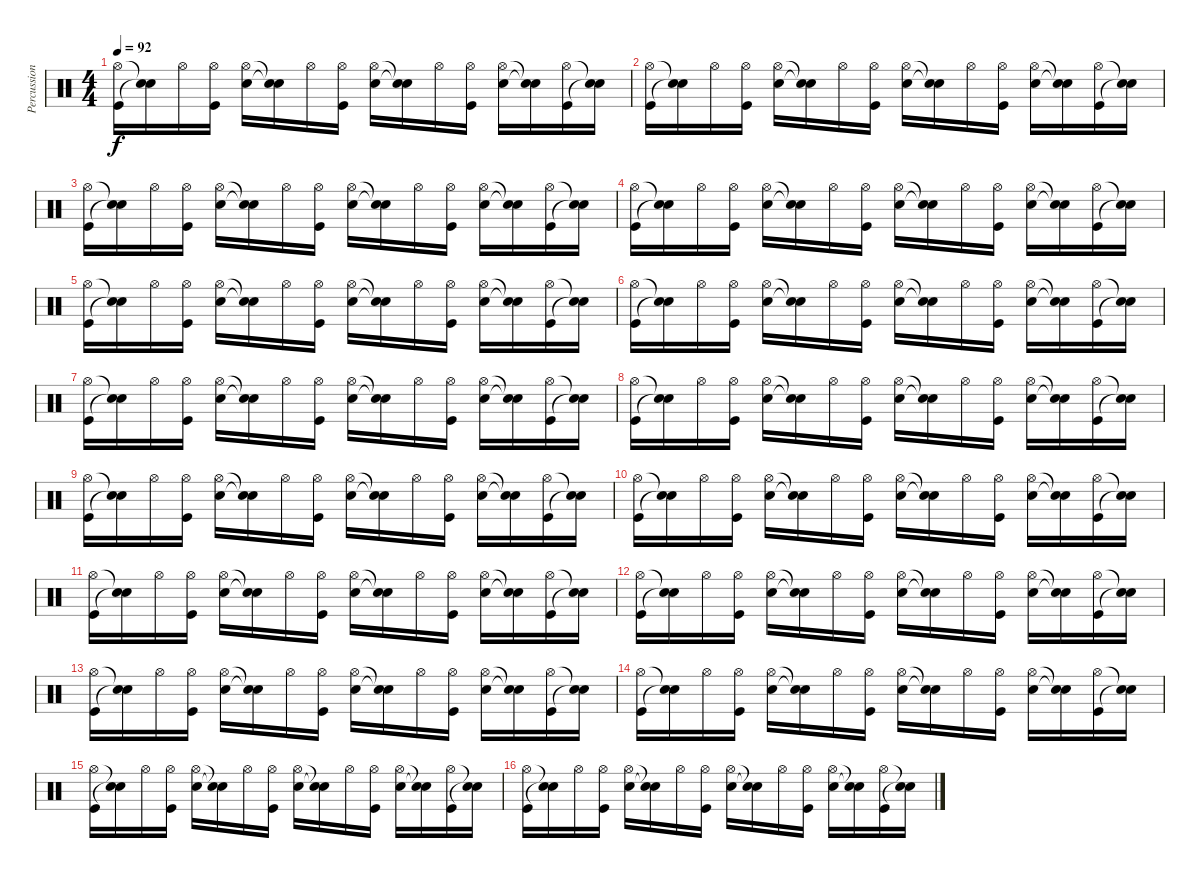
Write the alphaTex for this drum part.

\track ("Percussion" "Percussion") {instrument percussion}
\staff {score}
\articulation defaults
\ts (4 4)
\tempo 92
\clef neutral
\ks c
("Hi-Hat (open)" "Kick (hit)").16{dy f} ("Snare (hit)"{t} "Snare (hit)"{t}).16 "Hi-Hat (open)".16 ("Hi-Hat (open)" "Kick (hit)").16 ("Hi-Hat (open)" "Snare (hit) 2").16 ("Snare (hit)"{t} "Snare (hit)"{t}).16 "Hi-Hat (open)".16 ("Hi-Hat (open)" "Kick (hit)").16 ("Hi-Hat (open)" "Snare (hit) 2").16 ("Snare (hit)"{t} "Snare (hit)"{t}).16 "Hi-Hat (open)".16 ("Hi-Hat (open)" "Kick (hit)").16 ("Hi-Hat (open)" "Snare (hit) 2").16 ("Snare (hit)"{t} "Snare (hit)"{t}).16 ("Hi-Hat (open)" "Kick (hit)").16 ("Snare (hit)"{t} "Snare (hit)"{t}).16 |
("Hi-Hat (open)" "Kick (hit)").16 ("Snare (hit)"{t} "Snare (hit)"{t}).16 "Hi-Hat (open)".16 ("Hi-Hat (open)" "Kick (hit)").16 ("Hi-Hat (open)" "Snare (hit) 2").16 ("Snare (hit)"{t} "Snare (hit)"{t}).16 "Hi-Hat (open)".16 ("Hi-Hat (open)" "Kick (hit)").16 ("Hi-Hat (open)" "Snare (hit) 2").16 ("Snare (hit)"{t} "Snare (hit)"{t}).16 "Hi-Hat (open)".16 ("Hi-Hat (open)" "Kick (hit)").16 ("Hi-Hat (open)" "Snare (hit) 2").16 ("Snare (hit)"{t} "Snare (hit)"{t}).16 ("Hi-Hat (open)" "Kick (hit)").16 ("Snare (hit)"{t} "Snare (hit)"{t}).16 |
("Hi-Hat (open)" "Kick (hit)").16 ("Snare (hit)"{t} "Snare (hit)"{t}).16 "Hi-Hat (open)".16 ("Hi-Hat (open)" "Kick (hit)").16 ("Hi-Hat (open)" "Snare (hit) 2").16 ("Snare (hit)"{t} "Snare (hit)"{t}).16 "Hi-Hat (open)".16 ("Hi-Hat (open)" "Kick (hit)").16 ("Hi-Hat (open)" "Snare (hit) 2").16 ("Snare (hit)"{t} "Snare (hit)"{t}).16 "Hi-Hat (open)".16 ("Hi-Hat (open)" "Kick (hit)").16 ("Hi-Hat (open)" "Snare (hit) 2").16 ("Snare (hit)"{t} "Snare (hit)"{t}).16 ("Hi-Hat (open)" "Kick (hit)").16 ("Snare (hit)"{t} "Snare (hit)"{t}).16 |
("Hi-Hat (open)" "Kick (hit)").16 ("Snare (hit)"{t} "Snare (hit)"{t}).16 "Hi-Hat (open)".16 ("Hi-Hat (open)" "Kick (hit)").16 ("Hi-Hat (open)" "Snare (hit) 2").16 ("Snare (hit)"{t} "Snare (hit)"{t}).16 "Hi-Hat (open)".16 ("Hi-Hat (open)" "Kick (hit)").16 ("Hi-Hat (open)" "Snare (hit) 2").16 ("Snare (hit)"{t} "Snare (hit)"{t}).16 "Hi-Hat (open)".16 ("Hi-Hat (open)" "Kick (hit)").16 ("Hi-Hat (open)" "Snare (hit) 2").16 ("Snare (hit)"{t} "Snare (hit)"{t}).16 ("Hi-Hat (open)" "Kick (hit)").16 ("Snare (hit)"{t} "Snare (hit)"{t}).16 |
("Hi-Hat (open)" "Kick (hit)").16 ("Snare (hit)"{t} "Snare (hit)"{t}).16 "Hi-Hat (open)".16 ("Hi-Hat (open)" "Kick (hit)").16 ("Hi-Hat (open)" "Snare (hit) 2").16 ("Snare (hit)"{t} "Snare (hit)"{t}).16 "Hi-Hat (open)".16 ("Hi-Hat (open)" "Kick (hit)").16 ("Hi-Hat (open)" "Snare (hit) 2").16 ("Snare (hit)"{t} "Snare (hit)"{t}).16 "Hi-Hat (open)".16 ("Hi-Hat (open)" "Kick (hit)").16 ("Hi-Hat (open)" "Snare (hit) 2").16 ("Snare (hit)"{t} "Snare (hit)"{t}).16 ("Hi-Hat (open)" "Kick (hit)").16 ("Snare (hit)"{t} "Snare (hit)"{t}).16 |
("Hi-Hat (open)" "Kick (hit)").16 ("Snare (hit)"{t} "Snare (hit)"{t}).16 "Hi-Hat (open)".16 ("Hi-Hat (open)" "Kick (hit)").16 ("Hi-Hat (open)" "Snare (hit) 2").16 ("Snare (hit)"{t} "Snare (hit)"{t}).16 "Hi-Hat (open)".16 ("Hi-Hat (open)" "Kick (hit)").16 ("Hi-Hat (open)" "Snare (hit) 2").16 ("Snare (hit)"{t} "Snare (hit)"{t}).16 "Hi-Hat (open)".16 ("Hi-Hat (open)" "Kick (hit)").16 ("Hi-Hat (open)" "Snare (hit) 2").16 ("Snare (hit)"{t} "Snare (hit)"{t}).16 ("Hi-Hat (open)" "Kick (hit)").16 ("Snare (hit)"{t} "Snare (hit)"{t}).16 |
("Hi-Hat (open)" "Kick (hit)").16 ("Snare (hit)"{t} "Snare (hit)"{t}).16 "Hi-Hat (open)".16 ("Hi-Hat (open)" "Kick (hit)").16 ("Hi-Hat (open)" "Snare (hit) 2").16 ("Snare (hit)"{t} "Snare (hit)"{t}).16 "Hi-Hat (open)".16 ("Hi-Hat (open)" "Kick (hit)").16 ("Hi-Hat (open)" "Snare (hit) 2").16 ("Snare (hit)"{t} "Snare (hit)"{t}).16 "Hi-Hat (open)".16 ("Hi-Hat (open)" "Kick (hit)").16 ("Hi-Hat (open)" "Snare (hit) 2").16 ("Snare (hit)"{t} "Snare (hit)"{t}).16 ("Hi-Hat (open)" "Kick (hit)").16 ("Snare (hit)"{t} "Snare (hit)"{t}).16 |
("Hi-Hat (open)" "Kick (hit)").16 ("Snare (hit)"{t} "Snare (hit)"{t}).16 "Hi-Hat (open)".16 ("Hi-Hat (open)" "Kick (hit)").16 ("Hi-Hat (open)" "Snare (hit) 2").16 ("Snare (hit)"{t} "Snare (hit)"{t}).16 "Hi-Hat (open)".16 ("Hi-Hat (open)" "Kick (hit)").16 ("Hi-Hat (open)" "Snare (hit) 2").16 ("Snare (hit)"{t} "Snare (hit)"{t}).16 "Hi-Hat (open)".16 ("Hi-Hat (open)" "Kick (hit)").16 ("Hi-Hat (open)" "Snare (hit) 2").16 ("Snare (hit)"{t} "Snare (hit)"{t}).16 ("Hi-Hat (open)" "Kick (hit)").16 ("Snare (hit)"{t} "Snare (hit)"{t}).16 |
("Hi-Hat (open)" "Kick (hit)").16 ("Snare (hit)"{t} "Snare (hit)"{t}).16 "Hi-Hat (open)".16 ("Hi-Hat (open)" "Kick (hit)").16 ("Hi-Hat (open)" "Snare (hit) 2").16 ("Snare (hit)"{t} "Snare (hit)"{t}).16 "Hi-Hat (open)".16 ("Hi-Hat (open)" "Kick (hit)").16 ("Hi-Hat (open)" "Snare (hit) 2").16 ("Snare (hit)"{t} "Snare (hit)"{t}).16 "Hi-Hat (open)".16 ("Hi-Hat (open)" "Kick (hit)").16 ("Hi-Hat (open)" "Snare (hit) 2").16 ("Snare (hit)"{t} "Snare (hit)"{t}).16 ("Hi-Hat (open)" "Kick (hit)").16 ("Snare (hit)"{t} "Snare (hit)"{t}).16 |
("Hi-Hat (open)" "Kick (hit)").16 ("Snare (hit)"{t} "Snare (hit)"{t}).16 "Hi-Hat (open)".16 ("Hi-Hat (open)" "Kick (hit)").16 ("Hi-Hat (open)" "Snare (hit) 2").16 ("Snare (hit)"{t} "Snare (hit)"{t}).16 "Hi-Hat (open)".16 ("Hi-Hat (open)" "Kick (hit)").16 ("Hi-Hat (open)" "Snare (hit) 2").16 ("Snare (hit)"{t} "Snare (hit)"{t}).16 "Hi-Hat (open)".16 ("Hi-Hat (open)" "Kick (hit)").16 ("Hi-Hat (open)" "Snare (hit) 2").16 ("Snare (hit)"{t} "Snare (hit)"{t}).16 ("Hi-Hat (open)" "Kick (hit)").16 ("Snare (hit)"{t} "Snare (hit)"{t}).16 |
("Hi-Hat (open)" "Kick (hit)").16 ("Snare (hit)"{t} "Snare (hit)"{t}).16 "Hi-Hat (open)".16 ("Hi-Hat (open)" "Kick (hit)").16 ("Hi-Hat (open)" "Snare (hit) 2").16 ("Snare (hit)"{t} "Snare (hit)"{t}).16 "Hi-Hat (open)".16 ("Hi-Hat (open)" "Kick (hit)").16 ("Hi-Hat (open)" "Snare (hit) 2").16 ("Snare (hit)"{t} "Snare (hit)"{t}).16 "Hi-Hat (open)".16 ("Hi-Hat (open)" "Kick (hit)").16 ("Hi-Hat (open)" "Snare (hit) 2").16 ("Snare (hit)"{t} "Snare (hit)"{t}).16 ("Hi-Hat (open)" "Kick (hit)").16 ("Snare (hit)"{t} "Snare (hit)"{t}).16 |
("Hi-Hat (open)" "Kick (hit)").16 ("Snare (hit)"{t} "Snare (hit)"{t}).16 "Hi-Hat (open)".16 ("Hi-Hat (open)" "Kick (hit)").16 ("Hi-Hat (open)" "Snare (hit) 2").16 ("Snare (hit)"{t} "Snare (hit)"{t}).16 "Hi-Hat (open)".16 ("Hi-Hat (open)" "Kick (hit)").16 ("Hi-Hat (open)" "Snare (hit) 2").16 ("Snare (hit)"{t} "Snare (hit)"{t}).16 "Hi-Hat (open)".16 ("Hi-Hat (open)" "Kick (hit)").16 ("Hi-Hat (open)" "Snare (hit) 2").16 ("Snare (hit)"{t} "Snare (hit)"{t}).16 ("Hi-Hat (open)" "Kick (hit)").16 ("Snare (hit)"{t} "Snare (hit)"{t}).16 |
("Hi-Hat (open)" "Kick (hit)").16 ("Snare (hit)"{t} "Snare (hit)"{t}).16 "Hi-Hat (open)".16 ("Hi-Hat (open)" "Kick (hit)").16 ("Hi-Hat (open)" "Snare (hit) 2").16 ("Snare (hit)"{t} "Snare (hit)"{t}).16 "Hi-Hat (open)".16 ("Hi-Hat (open)" "Kick (hit)").16 ("Hi-Hat (open)" "Snare (hit) 2").16 ("Snare (hit)"{t} "Snare (hit)"{t}).16 "Hi-Hat (open)".16 ("Hi-Hat (open)" "Kick (hit)").16 ("Hi-Hat (open)" "Snare (hit) 2").16 ("Snare (hit)"{t} "Snare (hit)"{t}).16 ("Hi-Hat (open)" "Kick (hit)").16 ("Snare (hit)"{t} "Snare (hit)"{t}).16 |
("Hi-Hat (open)" "Kick (hit)").16 ("Snare (hit)"{t} "Snare (hit)"{t}).16 "Hi-Hat (open)".16 ("Hi-Hat (open)" "Kick (hit)").16 ("Hi-Hat (open)" "Snare (hit) 2").16 ("Snare (hit)"{t} "Snare (hit)"{t}).16 "Hi-Hat (open)".16 ("Hi-Hat (open)" "Kick (hit)").16 ("Hi-Hat (open)" "Snare (hit) 2").16 ("Snare (hit)"{t} "Snare (hit)"{t}).16 "Hi-Hat (open)".16 ("Hi-Hat (open)" "Kick (hit)").16 ("Hi-Hat (open)" "Snare (hit) 2").16 ("Snare (hit)"{t} "Snare (hit)"{t}).16 ("Hi-Hat (open)" "Kick (hit)").16 ("Snare (hit)"{t} "Snare (hit)"{t}).16 |
("Hi-Hat (open)" "Kick (hit)").16 ("Snare (hit)"{t} "Snare (hit)"{t}).16 "Hi-Hat (open)".16 ("Hi-Hat (open)" "Kick (hit)").16 ("Hi-Hat (open)" "Snare (hit) 2").16 ("Snare (hit)"{t} "Snare (hit)"{t}).16 "Hi-Hat (open)".16 ("Hi-Hat (open)" "Kick (hit)").16 ("Hi-Hat (open)" "Snare (hit) 2").16 ("Snare (hit)"{t} "Snare (hit)"{t}).16 "Hi-Hat (open)".16 ("Hi-Hat (open)" "Kick (hit)").16 ("Hi-Hat (open)" "Snare (hit) 2").16 ("Snare (hit)"{t} "Snare (hit)"{t}).16 ("Hi-Hat (open)" "Kick (hit)").16 ("Snare (hit)"{t} "Snare (hit)"{t}).16 |
("Hi-Hat (open)" "Kick (hit)").16 ("Snare (hit)"{t} "Snare (hit)"{t}).16 "Hi-Hat (open)".16 ("Hi-Hat (open)" "Kick (hit)").16 ("Hi-Hat (open)" "Snare (hit) 2").16 ("Snare (hit)"{t} "Snare (hit)"{t}).16 "Hi-Hat (open)".16 ("Hi-Hat (open)" "Kick (hit)").16 ("Hi-Hat (open)" "Snare (hit) 2").16 ("Snare (hit)"{t} "Snare (hit)"{t}).16 "Hi-Hat (open)".16 ("Hi-Hat (open)" "Kick (hit)").16 ("Hi-Hat (open)" "Snare (hit) 2").16 ("Snare (hit)"{t} "Snare (hit)"{t}).16 ("Hi-Hat (open)" "Kick (hit)").16 ("Snare (hit)"{t} "Snare (hit)"{t}).16
